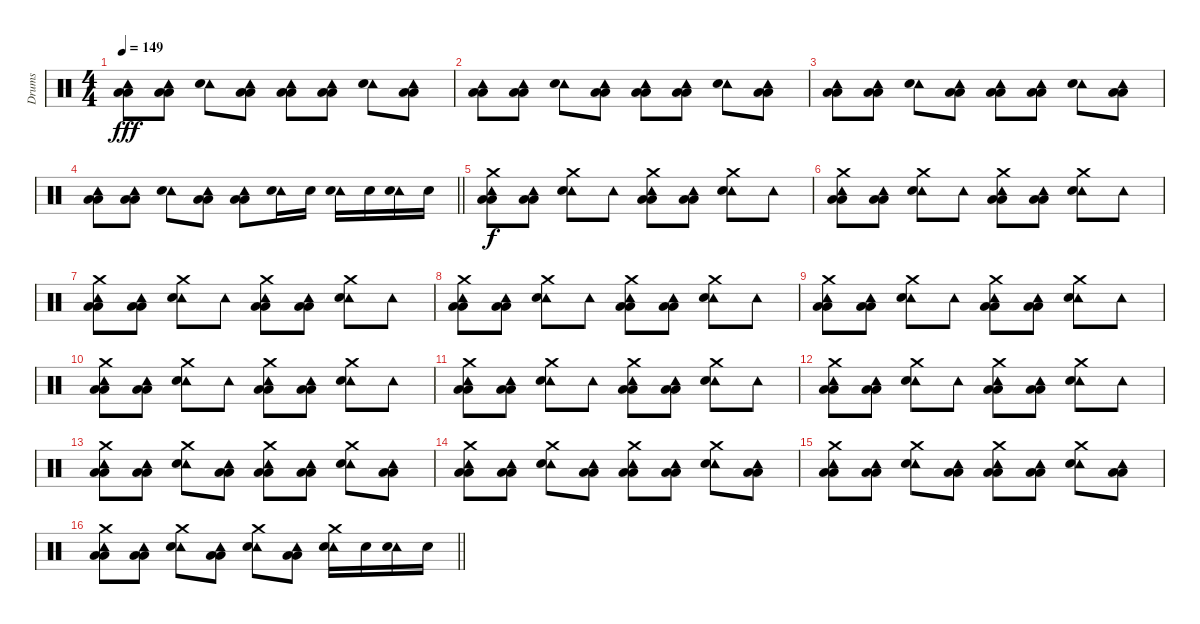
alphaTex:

\track ("Drums" "Drums") {instrument percussion}
\staff {score}
\articulation defaults
\ts (4 4)
\tempo 149
\clef neutral
\ks c
("Tambourine (hit)" "Low Floor Tom (hit)" "Low Floor Tom (hit)").8{dy fff} ("Tambourine (hit)" "Low Floor Tom (hit)" "Low Floor Tom (hit)").8 ("Tambourine (hit)" "Snare (hit) 2").8 ("Tambourine (hit)" "Low Floor Tom (hit)" "Low Floor Tom (hit)").8 ("Tambourine (hit)" "Low Floor Tom (hit)" "Low Floor Tom (hit)").8 ("Tambourine (hit)" "Low Floor Tom (hit)" "Low Floor Tom (hit)").8 ("Tambourine (hit)" "Snare (hit) 2").8 ("Tambourine (hit)" "Low Floor Tom (hit)" "Low Floor Tom (hit)").8 |
("Tambourine (hit)" "Low Floor Tom (hit)" "Low Floor Tom (hit)").8 ("Tambourine (hit)" "Low Floor Tom (hit)" "Low Floor Tom (hit)").8 ("Tambourine (hit)" "Snare (hit) 2").8 ("Tambourine (hit)" "Low Floor Tom (hit)" "Low Floor Tom (hit)").8 ("Tambourine (hit)" "Low Floor Tom (hit)" "Low Floor Tom (hit)").8 ("Tambourine (hit)" "Low Floor Tom (hit)" "Low Floor Tom (hit)").8 ("Tambourine (hit)" "Snare (hit) 2").8 ("Tambourine (hit)" "Low Floor Tom (hit)" "Low Floor Tom (hit)").8 |
("Tambourine (hit)" "Low Floor Tom (hit)" "Low Floor Tom (hit)").8 ("Tambourine (hit)" "Low Floor Tom (hit)" "Low Floor Tom (hit)").8 ("Tambourine (hit)" "Snare (hit) 2").8 ("Tambourine (hit)" "Low Floor Tom (hit)" "Low Floor Tom (hit)").8 ("Tambourine (hit)" "Low Floor Tom (hit)" "Low Floor Tom (hit)").8 ("Tambourine (hit)" "Low Floor Tom (hit)" "Low Floor Tom (hit)").8 ("Tambourine (hit)" "Snare (hit) 2").8 ("Tambourine (hit)" "Low Floor Tom (hit)" "Low Floor Tom (hit)").8 |
\barLineRight lightlight
("Tambourine (hit)" "Low Floor Tom (hit)" "Low Floor Tom (hit)").8 ("Tambourine (hit)" "Low Floor Tom (hit)" "Low Floor Tom (hit)").8 ("Tambourine (hit)" "Snare (hit) 2").8 ("Tambourine (hit)" "Low Floor Tom (hit)" "Low Floor Tom (hit)").8 ("Tambourine (hit)" "Low Floor Tom (hit)" "Low Floor Tom (hit)").8 ("Tambourine (hit)" "Snare (hit) 2").16 "Snare (hit) 2".16 ("Tambourine (hit)" "Snare (hit) 2").16 "Snare (hit) 2".16 ("Tambourine (hit)" "Snare (hit) 2").16 "Snare (hit) 2".16 |
("Crash medium (hit)" "Tambourine (hit)" "Low Floor Tom (hit)" "Low Floor Tom (hit)").8{dy f} ("Tambourine (hit)" "Low Floor Tom (hit)" "Low Floor Tom (hit)").8 ("Crash medium (hit)" "Tambourine (hit)" "Snare (hit) 2").8 "Tambourine (hit)".8 ("Crash medium (hit)" "Tambourine (hit)" "Low Floor Tom (hit)" "Low Floor Tom (hit)").8 ("Tambourine (hit)" "Low Floor Tom (hit)" "Low Floor Tom (hit)").8 ("Crash medium (hit)" "Tambourine (hit)" "Snare (hit) 2").8 "Tambourine (hit)".8 |
("Crash medium (hit)" "Tambourine (hit)" "Low Floor Tom (hit)" "Low Floor Tom (hit)").8 ("Tambourine (hit)" "Low Floor Tom (hit)" "Low Floor Tom (hit)").8 ("Crash medium (hit)" "Tambourine (hit)" "Snare (hit) 2").8 "Tambourine (hit)".8 ("Crash medium (hit)" "Tambourine (hit)" "Low Floor Tom (hit)" "Low Floor Tom (hit)").8 ("Tambourine (hit)" "Low Floor Tom (hit)" "Low Floor Tom (hit)").8 ("Crash medium (hit)" "Tambourine (hit)" "Snare (hit) 2").8 "Tambourine (hit)".8 |
("Crash medium (hit)" "Tambourine (hit)" "Low Floor Tom (hit)" "Low Floor Tom (hit)").8 ("Tambourine (hit)" "Low Floor Tom (hit)" "Low Floor Tom (hit)").8 ("Crash medium (hit)" "Tambourine (hit)" "Snare (hit) 2").8 "Tambourine (hit)".8 ("Crash medium (hit)" "Tambourine (hit)" "Low Floor Tom (hit)" "Low Floor Tom (hit)").8 ("Tambourine (hit)" "Low Floor Tom (hit)" "Low Floor Tom (hit)").8 ("Crash medium (hit)" "Tambourine (hit)" "Snare (hit) 2").8 "Tambourine (hit)".8 |
("Crash medium (hit)" "Tambourine (hit)" "Low Floor Tom (hit)" "Low Floor Tom (hit)").8 ("Tambourine (hit)" "Low Floor Tom (hit)" "Low Floor Tom (hit)").8 ("Crash medium (hit)" "Tambourine (hit)" "Snare (hit) 2").8 "Tambourine (hit)".8 ("Crash medium (hit)" "Tambourine (hit)" "Low Floor Tom (hit)" "Low Floor Tom (hit)").8 ("Tambourine (hit)" "Low Floor Tom (hit)" "Low Floor Tom (hit)").8 ("Crash medium (hit)" "Tambourine (hit)" "Snare (hit) 2").8 "Tambourine (hit)".8 |
("Crash medium (hit)" "Tambourine (hit)" "Low Floor Tom (hit)" "Low Floor Tom (hit)").8 ("Tambourine (hit)" "Low Floor Tom (hit)" "Low Floor Tom (hit)").8 ("Crash medium (hit)" "Tambourine (hit)" "Snare (hit) 2").8 "Tambourine (hit)".8 ("Crash medium (hit)" "Tambourine (hit)" "Low Floor Tom (hit)" "Low Floor Tom (hit)").8 ("Tambourine (hit)" "Low Floor Tom (hit)" "Low Floor Tom (hit)").8 ("Crash medium (hit)" "Tambourine (hit)" "Snare (hit) 2").8 "Tambourine (hit)".8 |
("Crash medium (hit)" "Tambourine (hit)" "Low Floor Tom (hit)" "Low Floor Tom (hit)").8 ("Tambourine (hit)" "Low Floor Tom (hit)" "Low Floor Tom (hit)").8 ("Crash medium (hit)" "Tambourine (hit)" "Snare (hit) 2").8 "Tambourine (hit)".8 ("Crash medium (hit)" "Tambourine (hit)" "Low Floor Tom (hit)" "Low Floor Tom (hit)").8 ("Tambourine (hit)" "Low Floor Tom (hit)" "Low Floor Tom (hit)").8 ("Crash medium (hit)" "Tambourine (hit)" "Snare (hit) 2").8 "Tambourine (hit)".8 |
("Crash medium (hit)" "Tambourine (hit)" "Low Floor Tom (hit)" "Low Floor Tom (hit)").8 ("Tambourine (hit)" "Low Floor Tom (hit)" "Low Floor Tom (hit)").8 ("Crash medium (hit)" "Tambourine (hit)" "Snare (hit) 2").8 "Tambourine (hit)".8 ("Crash medium (hit)" "Tambourine (hit)" "Low Floor Tom (hit)" "Low Floor Tom (hit)").8 ("Tambourine (hit)" "Low Floor Tom (hit)" "Low Floor Tom (hit)").8 ("Crash medium (hit)" "Tambourine (hit)" "Snare (hit) 2").8 "Tambourine (hit)".8 |
("Crash medium (hit)" "Tambourine (hit)" "Low Floor Tom (hit)" "Low Floor Tom (hit)").8 ("Tambourine (hit)" "Low Floor Tom (hit)" "Low Floor Tom (hit)").8 ("Crash medium (hit)" "Tambourine (hit)" "Snare (hit) 2").8 "Tambourine (hit)".8 ("Crash medium (hit)" "Tambourine (hit)" "Low Floor Tom (hit)" "Low Floor Tom (hit)").8 ("Tambourine (hit)" "Low Floor Tom (hit)" "Low Floor Tom (hit)").8 ("Crash medium (hit)" "Tambourine (hit)" "Snare (hit) 2").8 "Tambourine (hit)".8 |
("Crash medium (hit)" "Tambourine (hit)" "Low Floor Tom (hit)" "Low Floor Tom (hit)").8 ("Tambourine (hit)" "Low Floor Tom (hit)" "Low Floor Tom (hit)").8 ("Crash medium (hit)" "Tambourine (hit)" "Snare (hit) 2").8 ("Tambourine (hit)" "Low Floor Tom (hit)" "Low Floor Tom (hit)").8 ("Crash medium (hit)" "Tambourine (hit)" "Low Floor Tom (hit)" "Low Floor Tom (hit)").8 ("Tambourine (hit)" "Low Floor Tom (hit)" "Low Floor Tom (hit)").8 ("Crash medium (hit)" "Tambourine (hit)" "Snare (hit) 2").8 ("Tambourine (hit)" "Low Floor Tom (hit)" "Low Floor Tom (hit)").8 |
("Crash medium (hit)" "Tambourine (hit)" "Low Floor Tom (hit)" "Low Floor Tom (hit)").8 ("Tambourine (hit)" "Low Floor Tom (hit)" "Low Floor Tom (hit)").8 ("Crash medium (hit)" "Tambourine (hit)" "Snare (hit) 2").8 ("Tambourine (hit)" "Low Floor Tom (hit)" "Low Floor Tom (hit)").8 ("Crash medium (hit)" "Tambourine (hit)" "Low Floor Tom (hit)" "Low Floor Tom (hit)").8 ("Tambourine (hit)" "Low Floor Tom (hit)" "Low Floor Tom (hit)").8 ("Crash medium (hit)" "Tambourine (hit)" "Snare (hit) 2").8 ("Tambourine (hit)" "Low Floor Tom (hit)" "Low Floor Tom (hit)").8 |
("Crash medium (hit)" "Tambourine (hit)" "Low Floor Tom (hit)" "Low Floor Tom (hit)").8 ("Tambourine (hit)" "Low Floor Tom (hit)" "Low Floor Tom (hit)").8 ("Crash medium (hit)" "Tambourine (hit)" "Snare (hit) 2").8 ("Tambourine (hit)" "Low Floor Tom (hit)" "Low Floor Tom (hit)").8 ("Crash medium (hit)" "Tambourine (hit)" "Low Floor Tom (hit)" "Low Floor Tom (hit)").8 ("Tambourine (hit)" "Low Floor Tom (hit)" "Low Floor Tom (hit)").8 ("Crash medium (hit)" "Tambourine (hit)" "Snare (hit) 2").8 ("Tambourine (hit)" "Low Floor Tom (hit)" "Low Floor Tom (hit)").8 |
\barLineRight lightlight
("Crash medium (hit)" "Tambourine (hit)" "Low Floor Tom (hit)" "Low Floor Tom (hit)").8 ("Tambourine (hit)" "Low Floor Tom (hit)" "Low Floor Tom (hit)").8 ("Crash medium (hit)" "Tambourine (hit)" "Snare (hit) 2").8 ("Tambourine (hit)" "Low Floor Tom (hit)" "Low Floor Tom (hit)").8 ("Crash medium (hit)" "Tambourine (hit)" "Snare (hit) 2").8 ("Tambourine (hit)" "Low Floor Tom (hit)" "Low Floor Tom (hit)").8 ("Crash medium (hit)" "Tambourine (hit)" "Snare (hit) 2").16 "Snare (hit) 2".16 ("Tambourine (hit)" "Snare (hit) 2").16 "Snare (hit) 2".16
